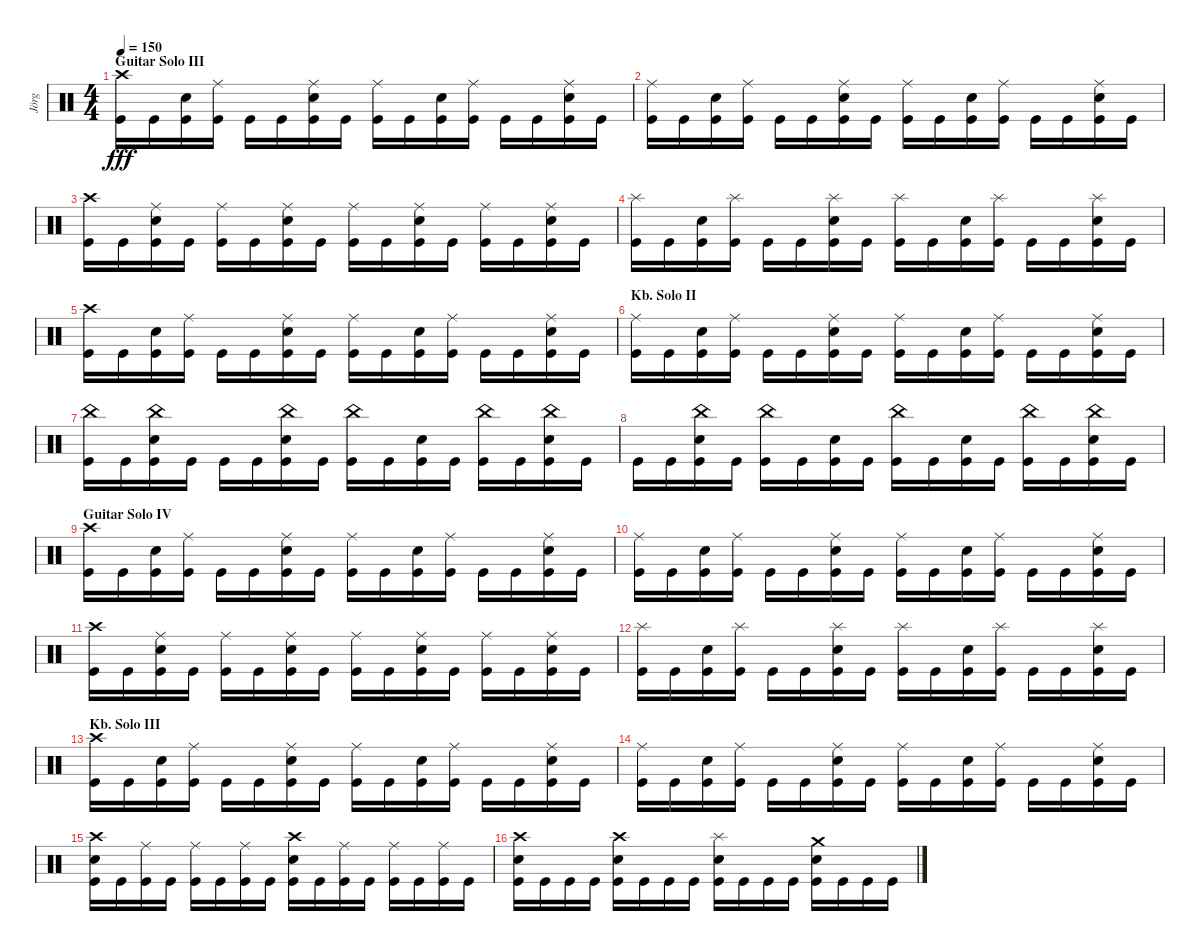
\track ("Jörg" "Jörg") {instrument percussion}
\staff {score}
\articulation defaults
\ts (4 4)
\section ("" "Guitar Solo III")
\tempo 150
\clef neutral
\ks c
("Crash high (hit)" "Kick (hit)").16{dy fff} "Kick (hit)".16 ("Snare (hit) 2" "Kick (hit)").16 ("Ride (middle)" "Kick (hit)").16 "Kick (hit)".16 "Kick (hit)".16 ("Ride (middle)" "Snare (hit) 2" "Kick (hit)").16 "Kick (hit)".16 ("Ride (middle)" "Kick (hit)").16 "Kick (hit)".16 ("Snare (hit) 2" "Kick (hit)").16 ("Ride (middle)" "Kick (hit)").16 "Kick (hit)".16 "Kick (hit)".16 ("Ride (middle)" "Snare (hit) 2" "Kick (hit)").16 "Kick (hit)".16 |
("Ride (middle)" "Kick (hit)").16 "Kick (hit)".16 ("Snare (hit) 2" "Kick (hit)").16 ("Ride (middle)" "Kick (hit)").16 "Kick (hit)".16 "Kick (hit)".16 ("Ride (middle)" "Snare (hit) 2" "Kick (hit)").16 "Kick (hit)".16 ("Ride (middle)" "Kick (hit)").16 "Kick (hit)".16 ("Snare (hit) 2" "Kick (hit)").16 ("Ride (middle)" "Kick (hit)").16 "Kick (hit)".16 "Kick (hit)".16 ("Ride (middle)" "Snare (hit) 2" "Kick (hit)").16 "Kick (hit)".16 |
("Crash high (hit)" "Kick (hit)").16 "Kick (hit)".16 ("Ride (middle)" "Snare (hit) 2" "Kick (hit)").16 "Kick (hit)".16 ("Ride (middle)" "Kick (hit)").16 "Kick (hit)".16 ("Ride (middle)" "Snare (hit) 2" "Kick (hit)").16 "Kick (hit)".16 ("Ride (middle)" "Kick (hit)").16 "Kick (hit)".16 ("Ride (middle)" "Snare (hit) 2" "Kick (hit)").16 "Kick (hit)".16 ("Ride (middle)" "Kick (hit)").16 "Kick (hit)".16 ("Ride (middle)" "Snare (hit) 2" "Kick (hit)").16 "Kick (hit)".16 |
("Splash (hit)" "Kick (hit)").16 "Kick (hit)".16 ("Snare (hit) 2" "Kick (hit)").16 ("Splash (hit)" "Kick (hit)").16 "Kick (hit)".16 "Kick (hit)".16 ("Splash (hit)" "Snare (hit) 2" "Kick (hit)").16 "Kick (hit)".16 ("Splash (hit)" "Kick (hit)").16 "Kick (hit)".16 ("Snare (hit) 2" "Kick (hit)").16 ("Splash (hit)" "Kick (hit)").16 "Kick (hit)".16 "Kick (hit)".16 ("Splash (hit)" "Snare (hit) 2" "Kick (hit)").16 "Kick (hit)".16 |
("Crash high (hit)" "Kick (hit)").16 "Kick (hit)".16 ("Snare (hit) 2" "Kick (hit)").16 ("Ride (middle)" "Kick (hit)").16 "Kick (hit)".16 "Kick (hit)".16 ("Ride (middle)" "Snare (hit) 2" "Kick (hit)").16 "Kick (hit)".16 ("Ride (middle)" "Kick (hit)").16 "Kick (hit)".16 ("Snare (hit) 2" "Kick (hit)").16 ("Ride (middle)" "Kick (hit)").16 "Kick (hit)".16 "Kick (hit)".16 ("Ride (middle)" "Snare (hit) 2" "Kick (hit)").16 "Kick (hit)".16 |
\section ("" "Kb. Solo II")
("Ride (middle)" "Kick (hit)").16 "Kick (hit)".16 ("Snare (hit) 2" "Kick (hit)").16 ("Ride (middle)" "Kick (hit)").16 "Kick (hit)".16 "Kick (hit)".16 ("Ride (middle)" "Snare (hit) 2" "Kick (hit)").16 "Kick (hit)".16 ("Ride (middle)" "Kick (hit)").16 "Kick (hit)".16 ("Snare (hit) 2" "Kick (hit)").16 ("Ride (middle)" "Kick (hit)").16 "Kick (hit)".16 "Kick (hit)".16 ("Ride (middle)" "Snare (hit) 2" "Kick (hit)").16 "Kick (hit)".16 |
("China (hit)" "Kick (hit)").16 "Kick (hit)".16 ("China (hit)" "Snare (hit) 2" "Kick (hit)").16 "Kick (hit)".16 "Kick (hit)".16 "Kick (hit)".16 ("China (hit)" "Snare (hit) 2" "Kick (hit)").16 "Kick (hit)".16 ("China (hit)" "Kick (hit)").16 "Kick (hit)".16 ("Snare (hit) 2" "Kick (hit)").16 "Kick (hit)".16 ("China (hit)" "Kick (hit)").16 "Kick (hit)".16 ("China (hit)" "Snare (hit) 2" "Kick (hit)").16 "Kick (hit)".16 |
"Kick (hit)".16 "Kick (hit)".16 ("China (hit)" "Snare (hit) 2" "Kick (hit)").16 "Kick (hit)".16 ("China (hit)" "Kick (hit)").16 "Kick (hit)".16 ("Snare (hit) 2" "Kick (hit)").16 "Kick (hit)".16 ("China (hit)" "Kick (hit)").16 "Kick (hit)".16 ("Snare (hit) 2" "Kick (hit)").16 "Kick (hit)".16 ("China (hit)" "Kick (hit)").16 "Kick (hit)".16 ("China (hit)" "Snare (hit) 2" "Kick (hit)").16 "Kick (hit)".16 |
\section ("" "Guitar Solo IV")
("Crash high (hit)" "Kick (hit)").16 "Kick (hit)".16 ("Snare (hit) 2" "Kick (hit)").16 ("Ride (middle)" "Kick (hit)").16 "Kick (hit)".16 "Kick (hit)".16 ("Ride (middle)" "Snare (hit) 2" "Kick (hit)").16 "Kick (hit)".16 ("Ride (middle)" "Kick (hit)").16 "Kick (hit)".16 ("Snare (hit) 2" "Kick (hit)").16 ("Ride (middle)" "Kick (hit)").16 "Kick (hit)".16 "Kick (hit)".16 ("Ride (middle)" "Snare (hit) 2" "Kick (hit)").16 "Kick (hit)".16 |
("Ride (middle)" "Kick (hit)").16 "Kick (hit)".16 ("Snare (hit) 2" "Kick (hit)").16 ("Ride (middle)" "Kick (hit)").16 "Kick (hit)".16 "Kick (hit)".16 ("Ride (middle)" "Snare (hit) 2" "Kick (hit)").16 "Kick (hit)".16 ("Ride (middle)" "Kick (hit)").16 "Kick (hit)".16 ("Snare (hit) 2" "Kick (hit)").16 ("Ride (middle)" "Kick (hit)").16 "Kick (hit)".16 "Kick (hit)".16 ("Ride (middle)" "Snare (hit) 2" "Kick (hit)").16 "Kick (hit)".16 |
("Crash high (hit)" "Kick (hit)").16 "Kick (hit)".16 ("Ride (middle)" "Snare (hit) 2" "Kick (hit)").16 "Kick (hit)".16 ("Ride (middle)" "Kick (hit)").16 "Kick (hit)".16 ("Ride (middle)" "Snare (hit) 2" "Kick (hit)").16 "Kick (hit)".16 ("Ride (middle)" "Kick (hit)").16 "Kick (hit)".16 ("Ride (middle)" "Snare (hit) 2" "Kick (hit)").16 "Kick (hit)".16 ("Ride (middle)" "Kick (hit)").16 "Kick (hit)".16 ("Ride (middle)" "Snare (hit) 2" "Kick (hit)").16 "Kick (hit)".16 |
("Splash (hit)" "Kick (hit)").16 "Kick (hit)".16 ("Snare (hit) 2" "Kick (hit)").16 ("Splash (hit)" "Kick (hit)").16 "Kick (hit)".16 "Kick (hit)".16 ("Splash (hit)" "Snare (hit) 2" "Kick (hit)").16 "Kick (hit)".16 ("Splash (hit)" "Kick (hit)").16 "Kick (hit)".16 ("Snare (hit) 2" "Kick (hit)").16 ("Splash (hit)" "Kick (hit)").16 "Kick (hit)".16 "Kick (hit)".16 ("Splash (hit)" "Snare (hit) 2" "Kick (hit)").16 "Kick (hit)".16 |
\section ("" "Kb. Solo III")
("Crash high (hit)" "Kick (hit)").16 "Kick (hit)".16 ("Snare (hit) 2" "Kick (hit)").16 ("Ride (middle)" "Kick (hit)").16 "Kick (hit)".16 "Kick (hit)".16 ("Ride (middle)" "Snare (hit) 2" "Kick (hit)").16 "Kick (hit)".16 ("Ride (middle)" "Kick (hit)").16 "Kick (hit)".16 ("Snare (hit) 2" "Kick (hit)").16 ("Ride (middle)" "Kick (hit)").16 "Kick (hit)".16 "Kick (hit)".16 ("Ride (middle)" "Snare (hit) 2" "Kick (hit)").16 "Kick (hit)".16 |
("Ride (middle)" "Kick (hit)").16 "Kick (hit)".16 ("Snare (hit) 2" "Kick (hit)").16 ("Ride (middle)" "Kick (hit)").16 "Kick (hit)".16 "Kick (hit)".16 ("Ride (middle)" "Snare (hit) 2" "Kick (hit)").16 "Kick (hit)".16 ("Ride (middle)" "Kick (hit)").16 "Kick (hit)".16 ("Snare (hit) 2" "Kick (hit)").16 ("Ride (middle)" "Kick (hit)").16 "Kick (hit)".16 "Kick (hit)".16 ("Ride (middle)" "Snare (hit) 2" "Kick (hit)").16 "Kick (hit)".16 |
("Snare (hit) 2" "Crash high (hit)" "Kick (hit)").16 "Kick (hit)".16 ("Ride (middle)" "Kick (hit)").16 "Kick (hit)".16 ("Ride (middle)" "Kick (hit)").16 "Kick (hit)".16 ("Ride (middle)" "Kick (hit)").16 "Kick (hit)".16 ("Snare (hit) 2" "Crash high (hit)" "Kick (hit)").16 "Kick (hit)".16 ("Ride (middle)" "Kick (hit)").16 "Kick (hit)".16 ("Ride (middle)" "Kick (hit)").16 "Kick (hit)".16 ("Ride (middle)" "Kick (hit)").16 "Kick (hit)".16 |
("Kick (hit)" "Crash high (hit)" "Snare (hit) 2").16 "Kick (hit)".16 "Kick (hit)".16 "Kick (hit)".16 ("Kick (hit)" "Crash high (hit)" "Snare (hit) 2").16 "Kick (hit)".16 "Kick (hit)".16 "Kick (hit)".16 ("Kick (hit)" "Splash (hit)" "Snare (hit) 2").16 "Kick (hit)".16 "Kick (hit)".16 "Kick (hit)".16 ("Kick (hit)" "Crash medium (hit)" "Snare (hit) 2").16 "Kick (hit)".16 "Kick (hit)".16 "Kick (hit)".16
